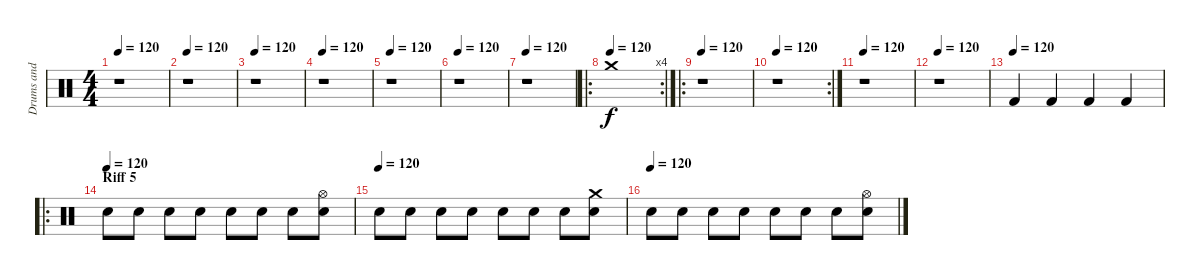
\track ("Drums and Percussion" "Drums and ") {instrument percussion}
\staff {score}
\articulation defaults
\ts (4 4)
\tempo 120
\clef neutral
\ks c
r.1{dy f} |
\tempo 120
r.1 |
\tempo 120
r.1 |
\tempo 120
r.1 |
\tempo 120
r.1 |
\tempo 120
r.1 |
\tempo 120
r.1 |
\ro
\rc 4
\tempo (120)
"Crash medium (hit)".1 |
\ro
\tempo 120
r.1 |
\rc 2
\tempo 120
r.1 |
\tempo 120
r.1 |
\tempo 120
r.1 |
\tempo (120)
"Kick (hit) 2".4 "Kick (hit) 2".4 "Kick (hit) 2".4 "Kick (hit) 2".4 |
\ro
\section ("" "Riff 5")
\tempo (120)
"Electric Snare (hit)".8 "Snare (hit) 2".8 "Electric Snare (hit)".8 "Snare (hit) 2".8 "Electric Snare (hit)".8 "Snare (hit) 2".8 "Electric Snare (hit)".8 ("Hi-Hat (open)" "Snare (hit) 2").8 |
\tempo (120)
"Electric Snare (hit)".8 "Snare (hit) 2".8 "Electric Snare (hit)".8 "Snare (hit) 2".8 "Electric Snare (hit)".8 "Snare (hit) 2".8 "Electric Snare (hit)".8 ("Crash medium (hit)" "Snare (hit) 2").8 |
\tempo (120)
"Electric Snare (hit)".8 "Snare (hit) 2".8 "Electric Snare (hit)".8 "Snare (hit) 2".8 "Electric Snare (hit)".8 "Snare (hit) 2".8 "Electric Snare (hit)".8 ("Hi-Hat (open)" "Snare (hit) 2").8
